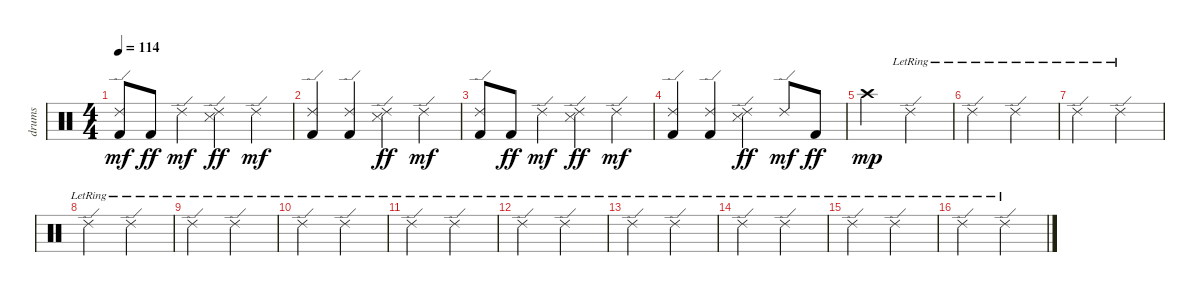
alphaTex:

\track ("drums" "drums") {instrument percussion}
\staff {score}
\articulation defaults
\ts (4 4)
\tempo 114
\clef neutral
\ks c
("Kick (hit) 2" "Ride (edge) 2").8{dy mf} "Kick (hit) 2".8{dy ff} "Ride (edge) 2".4{dy mf} ("Ride (edge) 2" "Snare (side stick) 3").4{dy ff} "Ride (edge) 2".4{dy mf} |
("Kick (hit) 2" "Ride (edge) 2").4 ("Kick (hit) 2" "Ride (edge) 2").4 ("Ride (edge) 2" "Snare (side stick) 3").4{dy ff} "Ride (edge) 2".4{dy mf} |
("Kick (hit) 2" "Ride (edge) 2").8 "Kick (hit) 2".8{dy ff} "Ride (edge) 2".4{dy mf} ("Ride (edge) 2" "Snare (side stick) 3").4{dy ff} "Ride (edge) 2".4{dy mf} |
("Kick (hit) 2" "Ride (edge) 2").4 ("Kick (hit) 2" "Ride (edge) 2").4 ("Ride (edge) 2" "Snare (side stick) 3").4{dy ff} "Ride (edge) 2".8{dy mf} "Kick (hit) 2".8{dy ff} |
"Crash high (hit)".2{dy mp} "Ride (edge) 2"{lr}.2 |
"Ride (edge) 2"{lr}.2 "Ride (edge) 2"{lr}.2 |
"Ride (edge) 2"{lr}.2 "Ride (edge) 2"{lr}.2 |
"Ride (edge) 2"{lr}.2 "Ride (edge) 2"{lr}.2 |
"Ride (edge) 2"{lr}.2 "Ride (edge) 2"{lr}.2 |
"Ride (edge) 2"{lr}.2 "Ride (edge) 2"{lr}.2 |
"Ride (edge) 2"{lr}.2 "Ride (edge) 2"{lr}.2 |
"Ride (edge) 2"{lr}.2 "Ride (edge) 2"{lr}.2 |
"Ride (edge) 2"{lr}.2 "Ride (edge) 2"{lr}.2 |
"Ride (edge) 2"{lr}.2 "Ride (edge) 2"{lr}.2 |
"Ride (edge) 2"{lr}.2 "Ride (edge) 2"{lr}.2 |
"Ride (edge) 2"{lr}.2 "Ride (edge) 2"{lr}.2
